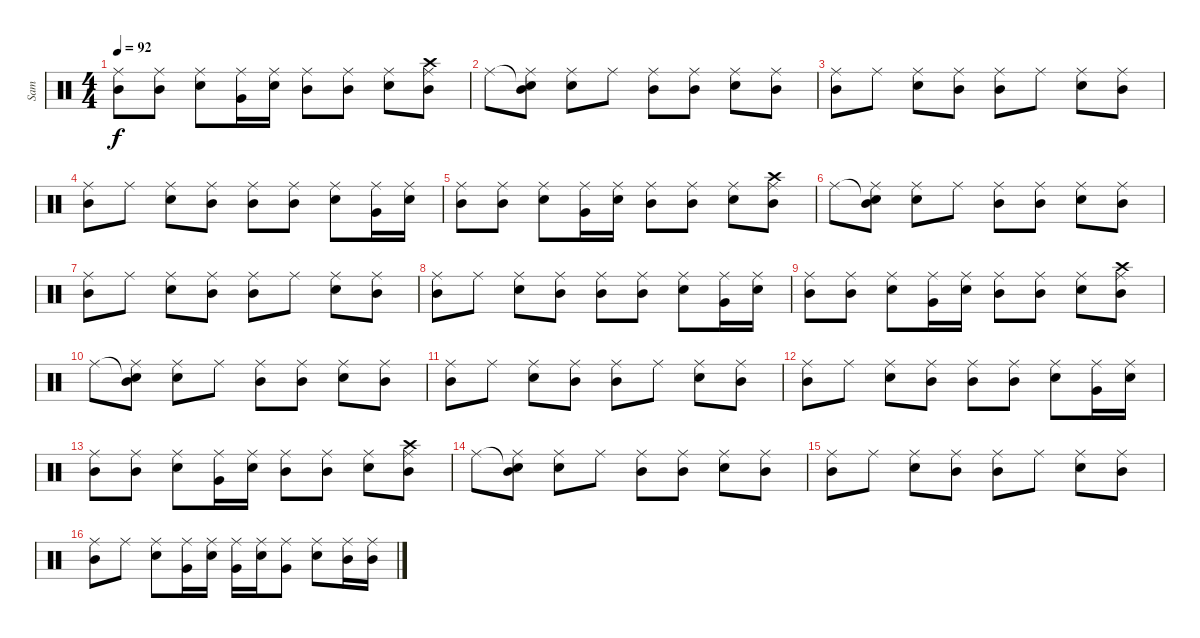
\track ("Sam" "Sam") {instrument percussion}
\staff {score}
\articulation defaults
\ts (4 4)
\tempo 92
\clef neutral
\ks c
("Mid Tom (hit)" "Ride (middle)").8{dy f} ("Mid Tom (hit)" "Ride (middle)").8 ("Electric Snare (hit)" "Ride (middle)").8 ("Very Low Tom (hit)" "Ride (middle)").16 ("Electric Snare (hit)" "Ride (middle)").16 ("Mid Tom (hit)" "Ride (middle)").8 ("Mid Tom (hit)" "Ride (middle)").8 ("Electric Snare (hit)" "Ride (middle)").8 ("Crash high (hit)" "Mid Tom (hit)" "Ride (middle)").8 |
"Ride (middle)".8 ("Snare (hit)"{t} "Mid Tom (hit)" "Ride (middle)").8 ("Electric Snare (hit)" "Ride (middle)").8 "Ride (middle)".8 ("Mid Tom (hit)" "Ride (middle)").8 ("Mid Tom (hit)" "Ride (middle)").8 ("Electric Snare (hit)" "Ride (middle)").8 ("Mid Tom (hit)" "Ride (middle)").8 |
("Mid Tom (hit)" "Ride (middle)").8 "Ride (middle)".8 ("Electric Snare (hit)" "Ride (middle)").8 ("Mid Tom (hit)" "Ride (middle)").8 ("Mid Tom (hit)" "Ride (middle)").8 "Ride (middle)".8 ("Electric Snare (hit)" "Ride (middle)").8 ("Mid Tom (hit)" "Ride (middle)").8 |
("Mid Tom (hit)" "Ride (middle)").8 "Ride (middle)".8 ("Electric Snare (hit)" "Ride (middle)").8 ("Mid Tom (hit)" "Ride (middle)").8 ("Mid Tom (hit)" "Ride (middle)").8 ("Mid Tom (hit)" "Ride (middle)").8 ("Electric Snare (hit)" "Ride (middle)").8 ("Very Low Tom (hit)" "Ride (middle)").16 ("Electric Snare (hit)" "Ride (middle)").16 |
("Mid Tom (hit)" "Ride (middle)").8 ("Mid Tom (hit)" "Ride (middle)").8 ("Electric Snare (hit)" "Ride (middle)").8 ("Very Low Tom (hit)" "Ride (middle)").16 ("Electric Snare (hit)" "Ride (middle)").16 ("Mid Tom (hit)" "Ride (middle)").8 ("Mid Tom (hit)" "Ride (middle)").8 ("Electric Snare (hit)" "Ride (middle)").8 ("Crash high (hit)" "Mid Tom (hit)" "Ride (middle)").8 |
"Ride (middle)".8 ("Snare (hit)"{t} "Mid Tom (hit)" "Ride (middle)").8 ("Electric Snare (hit)" "Ride (middle)").8 "Ride (middle)".8 ("Mid Tom (hit)" "Ride (middle)").8 ("Mid Tom (hit)" "Ride (middle)").8 ("Electric Snare (hit)" "Ride (middle)").8 ("Mid Tom (hit)" "Ride (middle)").8 |
("Mid Tom (hit)" "Ride (middle)").8 "Ride (middle)".8 ("Electric Snare (hit)" "Ride (middle)").8 ("Mid Tom (hit)" "Ride (middle)").8 ("Mid Tom (hit)" "Ride (middle)").8 "Ride (middle)".8 ("Electric Snare (hit)" "Ride (middle)").8 ("Mid Tom (hit)" "Ride (middle)").8 |
("Mid Tom (hit)" "Ride (middle)").8 "Ride (middle)".8 ("Electric Snare (hit)" "Ride (middle)").8 ("Mid Tom (hit)" "Ride (middle)").8 ("Mid Tom (hit)" "Ride (middle)").8 ("Mid Tom (hit)" "Ride (middle)").8 ("Electric Snare (hit)" "Ride (middle)").8 ("Very Low Tom (hit)" "Ride (middle)").16 ("Electric Snare (hit)" "Ride (middle)").16 |
("Mid Tom (hit)" "Ride (middle)").8 ("Mid Tom (hit)" "Ride (middle)").8 ("Electric Snare (hit)" "Ride (middle)").8 ("Very Low Tom (hit)" "Ride (middle)").16 ("Electric Snare (hit)" "Ride (middle)").16 ("Mid Tom (hit)" "Ride (middle)").8 ("Mid Tom (hit)" "Ride (middle)").8 ("Electric Snare (hit)" "Ride (middle)").8 ("Crash high (hit)" "Mid Tom (hit)" "Ride (middle)").8 |
"Ride (middle)".8 ("Snare (hit)"{t} "Mid Tom (hit)" "Ride (middle)").8 ("Electric Snare (hit)" "Ride (middle)").8 "Ride (middle)".8 ("Mid Tom (hit)" "Ride (middle)").8 ("Mid Tom (hit)" "Ride (middle)").8 ("Electric Snare (hit)" "Ride (middle)").8 ("Mid Tom (hit)" "Ride (middle)").8 |
("Mid Tom (hit)" "Ride (middle)").8 "Ride (middle)".8 ("Electric Snare (hit)" "Ride (middle)").8 ("Mid Tom (hit)" "Ride (middle)").8 ("Mid Tom (hit)" "Ride (middle)").8 "Ride (middle)".8 ("Electric Snare (hit)" "Ride (middle)").8 ("Mid Tom (hit)" "Ride (middle)").8 |
("Mid Tom (hit)" "Ride (middle)").8 "Ride (middle)".8 ("Electric Snare (hit)" "Ride (middle)").8 ("Mid Tom (hit)" "Ride (middle)").8 ("Mid Tom (hit)" "Ride (middle)").8 ("Mid Tom (hit)" "Ride (middle)").8 ("Electric Snare (hit)" "Ride (middle)").8 ("Very Low Tom (hit)" "Ride (middle)").16 ("Electric Snare (hit)" "Ride (middle)").16 |
("Mid Tom (hit)" "Ride (middle)").8 ("Mid Tom (hit)" "Ride (middle)").8 ("Electric Snare (hit)" "Ride (middle)").8 ("Very Low Tom (hit)" "Ride (middle)").16 ("Electric Snare (hit)" "Ride (middle)").16 ("Mid Tom (hit)" "Ride (middle)").8 ("Mid Tom (hit)" "Ride (middle)").8 ("Electric Snare (hit)" "Ride (middle)").8 ("Crash high (hit)" "Mid Tom (hit)" "Ride (middle)").8 |
"Ride (middle)".8 ("Snare (hit)"{t} "Mid Tom (hit)" "Ride (middle)").8 ("Electric Snare (hit)" "Ride (middle)").8 "Ride (middle)".8 ("Mid Tom (hit)" "Ride (middle)").8 ("Mid Tom (hit)" "Ride (middle)").8 ("Electric Snare (hit)" "Ride (middle)").8 ("Mid Tom (hit)" "Ride (middle)").8 |
("Mid Tom (hit)" "Ride (middle)").8 "Ride (middle)".8 ("Electric Snare (hit)" "Ride (middle)").8 ("Mid Tom (hit)" "Ride (middle)").8 ("Mid Tom (hit)" "Ride (middle)").8 "Ride (middle)".8 ("Electric Snare (hit)" "Ride (middle)").8 ("Mid Tom (hit)" "Ride (middle)").8 |
("Mid Tom (hit)" "Ride (middle)").8 "Ride (middle)".8 ("Electric Snare (hit)" "Ride (middle)").8 ("Very Low Tom (hit)" "Ride (middle)").16 ("Electric Snare (hit)" "Ride (middle)").16 ("Very Low Tom (hit)" "Ride (middle)").16 ("Electric Snare (hit)" "Ride (middle)").16 ("Very Low Tom (hit)" "Ride (middle)").8 ("Electric Snare (hit)" "Ride (middle)").8 ("Mid Tom (hit)" "Ride (middle)").16 ("Mid Tom (hit)" "Ride (middle)").16
